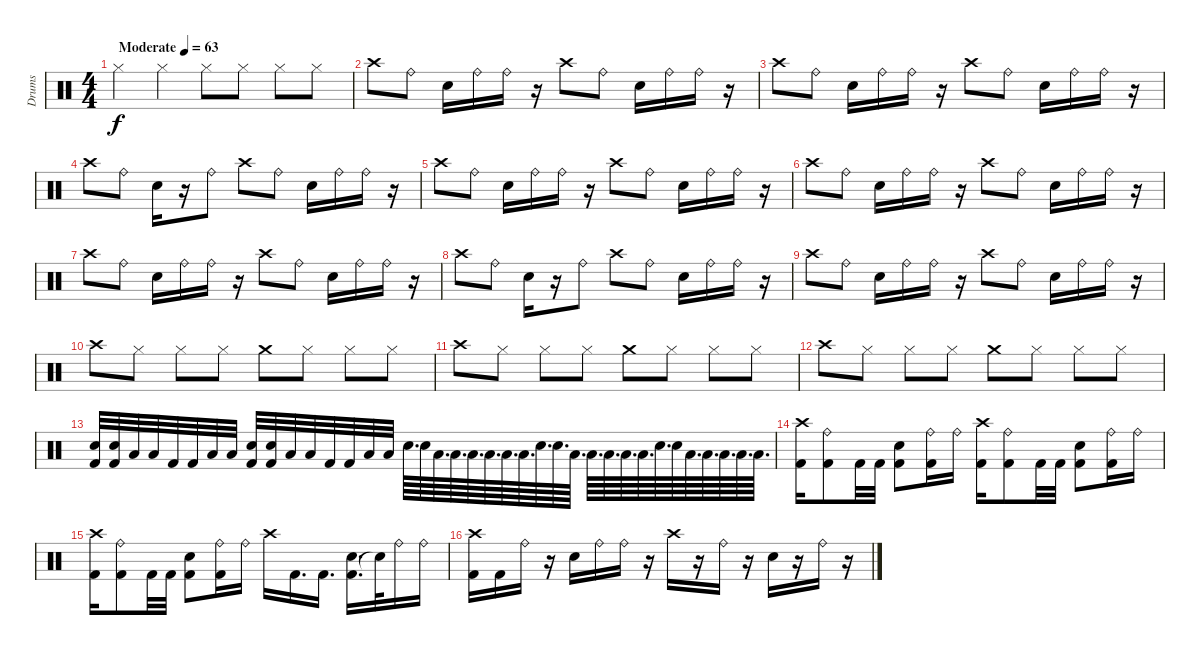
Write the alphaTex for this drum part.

\track ("Drums" "Drums") {instrument percussion}
\staff {score}
\articulation defaults
\ts (4 4)
\tempo (63 "Moderate")
\clef neutral
\ks c "Hi-Hat (closed)".4{dy f} "Hi-Hat (closed)".4 "Hi-Hat (closed)".8 "Hi-Hat (closed)".8 "Hi-Hat (closed)".8 "Hi-Hat (closed)".8
|
"Crash high (hit)".8 "Ride (bell)".8 "Electric Snare (hit)".16 "Ride (bell)".16 "Ride (bell)".16 r.16 "Crash high (hit)".8 "Ride (bell)".8 "Electric Snare (hit)".16 "Ride (bell)".16 "Ride (bell)".16 r.16 |
"Crash high (hit)".8 "Ride (bell)".8 "Electric Snare (hit)".16 "Ride (bell)".16 "Ride (bell)".16 r.16 "Crash high (hit)".8 "Ride (bell)".8 "Electric Snare (hit)".16 "Ride (bell)".16 "Ride (bell)".16 r.16 |
"Crash high (hit)".8 "Ride (bell)".8 "Electric Snare (hit)".16 r.16 "Ride (bell)".8 "Crash high (hit)".8 "Ride (bell)".8 "Electric Snare (hit)".16 "Ride (bell)".16 "Ride (bell)".16 r.16 |
"Crash high (hit)".8 "Ride (bell)".8 "Electric Snare (hit)".16 "Ride (bell)".16 "Ride (bell)".16 r.16 "Crash high (hit)".8 "Ride (bell)".8 "Electric Snare (hit)".16 "Ride (bell)".16 "Ride (bell)".16 r.16 |
"Crash high (hit)".8 "Ride (bell)".8 "Electric Snare (hit)".16 "Ride (bell)".16 "Ride (bell)".16 r.16 "Crash high (hit)".8 "Ride (bell)".8 "Electric Snare (hit)".16 "Ride (bell)".16 "Ride (bell)".16 r.16 |
"Crash high (hit)".8 "Ride (bell)".8 "Electric Snare (hit)".16 "Ride (bell)".16 "Ride (bell)".16 r.16 "Crash high (hit)".8 "Ride (bell)".8 "Electric Snare (hit)".16 "Ride (bell)".16 "Ride (bell)".16 r.16 |
"Crash high (hit)".8 "Ride (bell)".8 "Electric Snare (hit)".16 r.16 "Ride (bell)".8 "Crash high (hit)".8 "Ride (bell)".8 "Electric Snare (hit)".16 "Ride (bell)".16 "Ride (bell)".16 r.16 |
"Crash high (hit)".8 "Ride (bell)".8 "Electric Snare (hit)".16 "Ride (bell)".16 "Ride (bell)".16 r.16 "Crash high (hit)".8 "Ride (bell)".8 "Electric Snare (hit)".16 "Ride (bell)".16 "Ride (bell)".16 r.16 |
"Crash high (hit)".8 "Hi-Hat (closed)".8 "Hi-Hat (closed)".8 "Hi-Hat (closed)".8 "Crash medium (hit)".8 "Hi-Hat (closed)".8 "Hi-Hat (closed)".8 "Hi-Hat (closed)".8 |
"Crash high (hit)".8 "Hi-Hat (closed)".8 "Hi-Hat (closed)".8 "Hi-Hat (closed)".8 "Crash medium (hit)".8 "Hi-Hat (closed)".8 "Hi-Hat (closed)".8 "Hi-Hat (closed)".8 |
"Crash high (hit)".8 "Hi-Hat (closed)".8 "Hi-Hat (closed)".8 "Hi-Hat (closed)".8 "Crash medium (hit)".8 "Hi-Hat (closed)".8 "Hi-Hat (closed)".8 "Hi-Hat (closed)".8 |
("Kick (hit) 2" "Electric Snare (hit)").32 ("Kick (hit) 2" "Electric Snare (hit)").32 "Low Floor Tom (hit)".32 "Low Floor Tom (hit)".32 "Kick (hit) 2".32 "Kick (hit) 2".32 "Low Floor Tom (hit)".32 "Low Floor Tom (hit)".32 ("Kick (hit) 2" "Electric Snare (hit)").32 ("Kick (hit) 2" "Electric Snare (hit)").32 "Low Floor Tom (hit)".32 "Low Floor Tom (hit)".32 "Kick (hit) 2".32 "Kick (hit) 2".32 "Low Floor Tom (hit)".32 "Low Floor Tom (hit)".32 "Electric Snare (hit)".64{d} "Electric Snare (hit)".64 "Low Floor Tom (hit)".64{d} "Low Floor Tom (hit)".64{d} "Low Tom (hit)".64{d} "Low Tom (hit)".64{d} "Low Floor Tom (hit)".64{d} "Low Floor Tom (hit)".64{d} "Electric Snare (hit)".64{d} "Electric Snare (hit)".64{d} "Low Floor Tom (hit)".64{d} "Low Floor Tom (hit)".64{d} "Low Tom (hit)".64{d} "Low Tom (hit)".64{d} "Low Floor Tom (hit)".64{d} "Electric Snare (hit)".64{d} "Electric Snare (hit)".64 "Low Floor Tom (hit)".64{d} "Low Floor Tom (hit)".64{d} "Low Tom (hit)".64{d} "Low Tom (hit)".64{d} "Low Floor Tom (hit)".64{d} |
("Kick (hit) 2" "Crash high (hit)").16 ("Kick (hit) 2" "Ride (bell)").8 "Kick (hit) 2".32 "Kick (hit) 2".32 ("Kick (hit) 2" "Electric Snare (hit)").8 ("Kick (hit) 2" "Ride (bell)").16 "Ride (bell)".16 ("Kick (hit) 2" "Crash high (hit)").16 ("Kick (hit) 2" "Ride (bell)").8 "Kick (hit) 2".32 "Kick (hit) 2".32 ("Kick (hit) 2" "Electric Snare (hit)").8 ("Kick (hit) 2" "Ride (bell)").16 "Ride (bell)".16 |
("Kick (hit) 2" "Crash high (hit)").16 ("Kick (hit) 2" "Ride (bell)").8 "Kick (hit) 2".32 "Kick (hit) 2".32 ("Kick (hit) 2" "Electric Snare (hit)").8 ("Kick (hit) 2" "Ride (bell)").16 "Ride (bell)".16 "Crash high (hit)".16 "Kick (hit) 2".16{d} "Kick (hit) 2".16{d} ("Kick (hit) 2" "Electric Snare (hit)").16{d} "Electric Snare (hit)"{t}.32 "Ride (bell)".16 "Ride (bell)".16 |
("Kick (hit) 2" "Crash high (hit)").16 "Kick (hit) 2".16 "Ride (bell)".16 r.16 "Electric Snare (hit)".16 "Ride (bell)".16 "Ride (bell)".16 r.16 "Crash high (hit)".16 r.16 "Ride (bell)".16 r.16 "Electric Snare (hit)".16 r.16 "Ride (bell)".16 r.16
